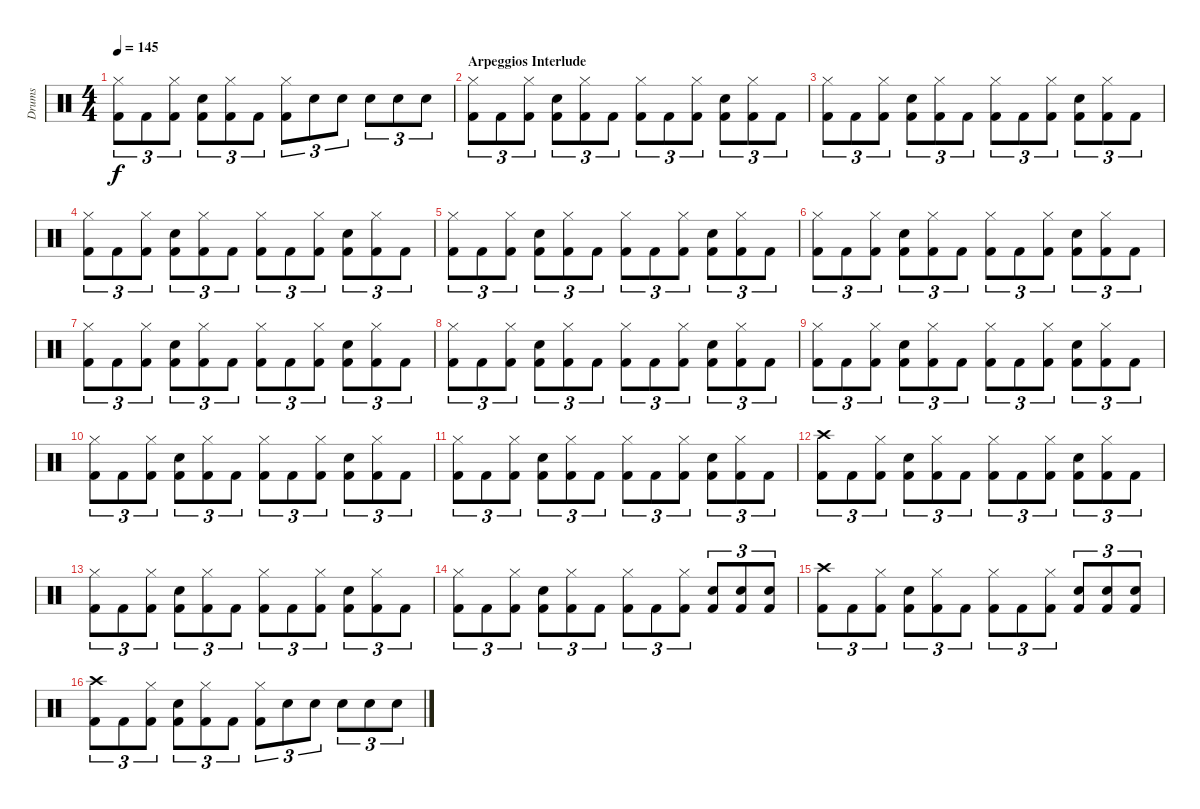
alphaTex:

\track ("Drums" "Drums") {instrument percussion}
\staff {score}
\articulation defaults
\ts (4 4)
\tempo 145
\clef neutral
\ks c
("Hi-Hat (closed)" "Kick (hit) 2").8{tu (3 2) dy f} "Kick (hit) 2".8{tu (3 2)} ("Hi-Hat (closed)" "Kick (hit) 2").8{tu (3 2)} ("Snare (hit) 2" "Kick (hit) 2").8{tu (3 2)} ("Hi-Hat (closed)" "Kick (hit) 2").8{tu (3 2)} "Kick (hit) 2".8{tu (3 2)} ("Hi-Hat (closed)" "Kick (hit) 2").8{tu (3 2)} "Snare (hit) 2".8{tu (3 2)} "Snare (hit) 2".8{tu (3 2)} "Snare (hit) 2".8{tu (3 2)} "Snare (hit) 2".8{tu (3 2)} "Snare (hit) 2".8{tu (3 2)} |
\section ("" "Arpeggios Interlude")
("Kick (hit) 2" "Hi-Hat (closed)").8{tu (3 2)} "Kick (hit) 2".8{tu (3 2)} ("Hi-Hat (closed)" "Kick (hit) 2").8{tu (3 2)} ("Snare (hit) 2" "Kick (hit) 2").8{tu (3 2)} ("Hi-Hat (closed)" "Kick (hit) 2").8{tu (3 2)} "Kick (hit) 2".8{tu (3 2)} ("Hi-Hat (closed)" "Kick (hit) 2").8{tu (3 2)} "Kick (hit) 2".8{tu (3 2)} ("Hi-Hat (closed)" "Kick (hit) 2").8{tu (3 2)} ("Snare (hit) 2" "Kick (hit) 2").8{tu (3 2)} ("Hi-Hat (closed)" "Kick (hit) 2").8{tu (3 2)} "Kick (hit) 2".8{tu (3 2)} |
("Hi-Hat (closed)" "Kick (hit) 2").8{tu (3 2)} "Kick (hit) 2".8{tu (3 2)} ("Hi-Hat (closed)" "Kick (hit) 2").8{tu (3 2)} ("Snare (hit) 2" "Kick (hit) 2").8{tu (3 2)} ("Hi-Hat (closed)" "Kick (hit) 2").8{tu (3 2)} "Kick (hit) 2".8{tu (3 2)} ("Hi-Hat (closed)" "Kick (hit) 2").8{tu (3 2)} "Kick (hit) 2".8{tu (3 2)} ("Hi-Hat (closed)" "Kick (hit) 2").8{tu (3 2)} ("Snare (hit) 2" "Kick (hit) 2").8{tu (3 2)} ("Hi-Hat (closed)" "Kick (hit) 2").8{tu (3 2)} "Kick (hit) 2".8{tu (3 2)} |
("Kick (hit) 2" "Hi-Hat (closed)").8{tu (3 2)} "Kick (hit) 2".8{tu (3 2)} ("Hi-Hat (closed)" "Kick (hit) 2").8{tu (3 2)} ("Snare (hit) 2" "Kick (hit) 2").8{tu (3 2)} ("Hi-Hat (closed)" "Kick (hit) 2").8{tu (3 2)} "Kick (hit) 2".8{tu (3 2)} ("Hi-Hat (closed)" "Kick (hit) 2").8{tu (3 2)} "Kick (hit) 2".8{tu (3 2)} ("Hi-Hat (closed)" "Kick (hit) 2").8{tu (3 2)} ("Snare (hit) 2" "Kick (hit) 2").8{tu (3 2)} ("Hi-Hat (closed)" "Kick (hit) 2").8{tu (3 2)} "Kick (hit) 2".8{tu (3 2)} |
("Kick (hit) 2" "Hi-Hat (closed)").8{tu (3 2)} "Kick (hit) 2".8{tu (3 2)} ("Hi-Hat (closed)" "Kick (hit) 2").8{tu (3 2)} ("Snare (hit) 2" "Kick (hit) 2").8{tu (3 2)} ("Hi-Hat (closed)" "Kick (hit) 2").8{tu (3 2)} "Kick (hit) 2".8{tu (3 2)} ("Hi-Hat (closed)" "Kick (hit) 2").8{tu (3 2)} "Kick (hit) 2".8{tu (3 2)} ("Hi-Hat (closed)" "Kick (hit) 2").8{tu (3 2)} ("Snare (hit) 2" "Kick (hit) 2").8{tu (3 2)} ("Hi-Hat (closed)" "Kick (hit) 2").8{tu (3 2)} "Kick (hit) 2".8{tu (3 2)} |
("Kick (hit) 2" "Hi-Hat (closed)").8{tu (3 2)} "Kick (hit) 2".8{tu (3 2)} ("Hi-Hat (closed)" "Kick (hit) 2").8{tu (3 2)} ("Snare (hit) 2" "Kick (hit) 2").8{tu (3 2)} ("Hi-Hat (closed)" "Kick (hit) 2").8{tu (3 2)} "Kick (hit) 2".8{tu (3 2)} ("Hi-Hat (closed)" "Kick (hit) 2").8{tu (3 2)} "Kick (hit) 2".8{tu (3 2)} ("Hi-Hat (closed)" "Kick (hit) 2").8{tu (3 2)} ("Snare (hit) 2" "Kick (hit) 2").8{tu (3 2)} ("Hi-Hat (closed)" "Kick (hit) 2").8{tu (3 2)} "Kick (hit) 2".8{tu (3 2)} |
("Kick (hit) 2" "Hi-Hat (closed)").8{tu (3 2)} "Kick (hit) 2".8{tu (3 2)} ("Hi-Hat (closed)" "Kick (hit) 2").8{tu (3 2)} ("Snare (hit) 2" "Kick (hit) 2").8{tu (3 2)} ("Hi-Hat (closed)" "Kick (hit) 2").8{tu (3 2)} "Kick (hit) 2".8{tu (3 2)} ("Hi-Hat (closed)" "Kick (hit) 2").8{tu (3 2)} "Kick (hit) 2".8{tu (3 2)} ("Hi-Hat (closed)" "Kick (hit) 2").8{tu (3 2)} ("Snare (hit) 2" "Kick (hit) 2").8{tu (3 2)} ("Hi-Hat (closed)" "Kick (hit) 2").8{tu (3 2)} "Kick (hit) 2".8{tu (3 2)} |
("Kick (hit) 2" "Hi-Hat (closed)").8{tu (3 2)} "Kick (hit) 2".8{tu (3 2)} ("Hi-Hat (closed)" "Kick (hit) 2").8{tu (3 2)} ("Snare (hit) 2" "Kick (hit) 2").8{tu (3 2)} ("Hi-Hat (closed)" "Kick (hit) 2").8{tu (3 2)} "Kick (hit) 2".8{tu (3 2)} ("Hi-Hat (closed)" "Kick (hit) 2").8{tu (3 2)} "Kick (hit) 2".8{tu (3 2)} ("Hi-Hat (closed)" "Kick (hit) 2").8{tu (3 2)} ("Snare (hit) 2" "Kick (hit) 2").8{tu (3 2)} ("Hi-Hat (closed)" "Kick (hit) 2").8{tu (3 2)} "Kick (hit) 2".8{tu (3 2)} |
("Kick (hit) 2" "Hi-Hat (closed)").8{tu (3 2)} "Kick (hit) 2".8{tu (3 2)} ("Hi-Hat (closed)" "Kick (hit) 2").8{tu (3 2)} ("Snare (hit) 2" "Kick (hit) 2").8{tu (3 2)} ("Hi-Hat (closed)" "Kick (hit) 2").8{tu (3 2)} "Kick (hit) 2".8{tu (3 2)} ("Hi-Hat (closed)" "Kick (hit) 2").8{tu (3 2)} "Kick (hit) 2".8{tu (3 2)} ("Hi-Hat (closed)" "Kick (hit) 2").8{tu (3 2)} ("Snare (hit) 2" "Kick (hit) 2").8{tu (3 2)} ("Hi-Hat (closed)" "Kick (hit) 2").8{tu (3 2)} "Kick (hit) 2".8{tu (3 2)} |
("Kick (hit) 2" "Hi-Hat (closed)").8{tu (3 2)} "Kick (hit) 2".8{tu (3 2)} ("Hi-Hat (closed)" "Kick (hit) 2").8{tu (3 2)} ("Snare (hit) 2" "Kick (hit) 2").8{tu (3 2)} ("Hi-Hat (closed)" "Kick (hit) 2").8{tu (3 2)} "Kick (hit) 2".8{tu (3 2)} ("Hi-Hat (closed)" "Kick (hit) 2").8{tu (3 2)} "Kick (hit) 2".8{tu (3 2)} ("Hi-Hat (closed)" "Kick (hit) 2").8{tu (3 2)} ("Snare (hit) 2" "Kick (hit) 2").8{tu (3 2)} ("Hi-Hat (closed)" "Kick (hit) 2").8{tu (3 2)} "Kick (hit) 2".8{tu (3 2)} |
("Kick (hit) 2" "Hi-Hat (closed)").8{tu (3 2)} "Kick (hit) 2".8{tu (3 2)} ("Hi-Hat (closed)" "Kick (hit) 2").8{tu (3 2)} ("Snare (hit) 2" "Kick (hit) 2").8{tu (3 2)} ("Hi-Hat (closed)" "Kick (hit) 2").8{tu (3 2)} "Kick (hit) 2".8{tu (3 2)} ("Hi-Hat (closed)" "Kick (hit) 2").8{tu (3 2)} "Kick (hit) 2".8{tu (3 2)} ("Hi-Hat (closed)" "Kick (hit) 2").8{tu (3 2)} ("Snare (hit) 2" "Kick (hit) 2").8{tu (3 2)} ("Hi-Hat (closed)" "Kick (hit) 2").8{tu (3 2)} "Kick (hit) 2".8{tu (3 2)} |
("Kick (hit) 2" "Crash high (hit)").8{tu (3 2)} "Kick (hit) 2".8{tu (3 2)} ("Hi-Hat (closed)" "Kick (hit) 2").8{tu (3 2)} ("Snare (hit) 2" "Kick (hit) 2").8{tu (3 2)} ("Hi-Hat (closed)" "Kick (hit) 2").8{tu (3 2)} "Kick (hit) 2".8{tu (3 2)} ("Hi-Hat (closed)" "Kick (hit) 2").8{tu (3 2)} "Kick (hit) 2".8{tu (3 2)} ("Hi-Hat (closed)" "Kick (hit) 2").8{tu (3 2)} ("Snare (hit) 2" "Kick (hit) 2").8{tu (3 2)} ("Hi-Hat (closed)" "Kick (hit) 2").8{tu (3 2)} "Kick (hit) 2".8{tu (3 2)} |
("Kick (hit) 2" "Hi-Hat (closed)").8{tu (3 2)} "Kick (hit) 2".8{tu (3 2)} ("Hi-Hat (closed)" "Kick (hit) 2").8{tu (3 2)} ("Snare (hit) 2" "Kick (hit) 2").8{tu (3 2)} ("Hi-Hat (closed)" "Kick (hit) 2").8{tu (3 2)} "Kick (hit) 2".8{tu (3 2)} ("Hi-Hat (closed)" "Kick (hit) 2").8{tu (3 2)} "Kick (hit) 2".8{tu (3 2)} ("Hi-Hat (closed)" "Kick (hit) 2").8{tu (3 2)} ("Snare (hit) 2" "Kick (hit) 2").8{tu (3 2)} ("Hi-Hat (closed)" "Kick (hit) 2").8{tu (3 2)} "Kick (hit) 2".8{tu (3 2)} |
("Hi-Hat (closed)" "Kick (hit) 2").8{tu (3 2)} "Kick (hit) 2".8{tu (3 2)} ("Hi-Hat (closed)" "Kick (hit) 2").8{tu (3 2)} ("Snare (hit) 2" "Kick (hit) 2").8{tu (3 2)} ("Hi-Hat (closed)" "Kick (hit) 2").8{tu (3 2)} "Kick (hit) 2".8{tu (3 2)} ("Hi-Hat (closed)" "Kick (hit) 2").8{tu (3 2)} "Kick (hit) 2".8{tu (3 2)} ("Hi-Hat (closed)" "Kick (hit) 2").8{tu (3 2)} ("Kick (hit) 2" "Electric Snare (hit)").8{tu (3 2)} ("Kick (hit) 2" "Electric Snare (hit)").8{tu (3 2)} ("Kick (hit) 2" "Electric Snare (hit)").8{tu (3 2)} |
("Kick (hit) 2" "Crash high (hit)").8{tu (3 2)} "Kick (hit) 2".8{tu (3 2)} ("Hi-Hat (closed)" "Kick (hit) 2").8{tu (3 2)} ("Snare (hit) 2" "Kick (hit) 2").8{tu (3 2)} ("Hi-Hat (closed)" "Kick (hit) 2").8{tu (3 2)} "Kick (hit) 2".8{tu (3 2)} ("Hi-Hat (closed)" "Kick (hit) 2").8{tu (3 2)} "Kick (hit) 2".8{tu (3 2)} ("Hi-Hat (closed)" "Kick (hit) 2").8{tu (3 2)} ("Kick (hit) 2" "Electric Snare (hit)").8{tu (3 2)} ("Kick (hit) 2" "Electric Snare (hit)").8{tu (3 2)} ("Kick (hit) 2" "Electric Snare (hit)").8{tu (3 2)} |
("Crash high (hit)" "Kick (hit) 2").8{tu (3 2)} "Kick (hit) 2".8{tu (3 2)} ("Hi-Hat (closed)" "Kick (hit) 2").8{tu (3 2)} ("Snare (hit) 2" "Kick (hit) 2").8{tu (3 2)} ("Hi-Hat (closed)" "Kick (hit) 2").8{tu (3 2)} "Kick (hit) 2".8{tu (3 2)} ("Hi-Hat (closed)" "Kick (hit) 2").8{tu (3 2)} "Electric Snare (hit)".8{tu (3 2)} "Electric Snare (hit)".8{tu (3 2)} "Electric Snare (hit)".8{tu (3 2)} "Electric Snare (hit)".8{tu (3 2)} "Electric Snare (hit)".8{tu (3 2)}
